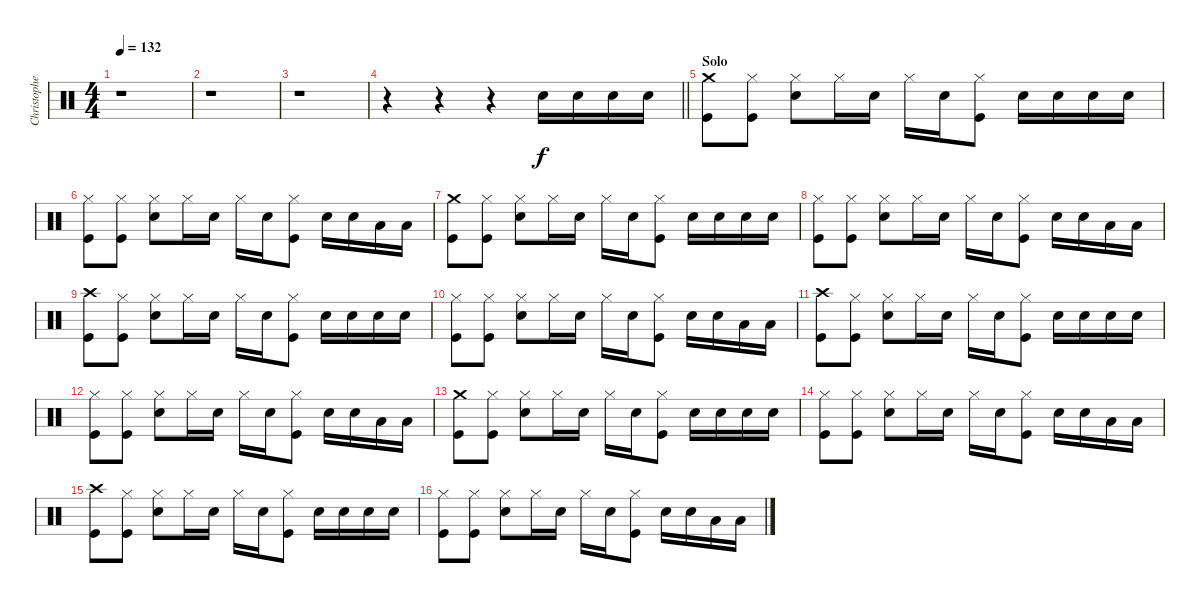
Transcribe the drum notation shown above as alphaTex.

\track ("Christopher - Drums" "Christophe") {instrument percussion}
\staff {score}
\articulation defaults
\ts (4 4)
\tempo 132
\clef neutral
\ks c
r.1{dy f} |
r.1 |
r.1 |
\barLineRight lightlight
r.4 r.4 r.4 "Snare (hit) 2".16 "Snare (hit) 2".16 "Snare (hit) 2".16 "Snare (hit) 2".16 |
\section ("" "Solo")
("Crash medium (hit)" "Kick (hit)").8 ("Hi-Hat (closed)" "Kick (hit)").8 ("Hi-Hat (closed)" "Snare (hit) 2").8 "Hi-Hat (closed)".16 "Snare (hit) 2".16 "Hi-Hat (closed)".16 "Snare (hit) 2".16 ("Hi-Hat (closed)" "Kick (hit)").8 "Snare (hit) 2".16 "Snare (hit) 2".16 "Snare (hit) 2".16 "Snare (hit) 2".16 |
("Hi-Hat (closed)" "Kick (hit)").8 ("Hi-Hat (closed)" "Kick (hit)").8 ("Hi-Hat (closed)" "Snare (hit) 2").8 "Hi-Hat (closed)".16 "Snare (hit) 2".16 "Hi-Hat (closed)".16 "Snare (hit) 2".16 ("Hi-Hat (closed)" "Kick (hit)").8 "Snare (hit) 2".16 "Snare (hit) 2".16 "Low Tom (hit)".16 "Low Tom (hit)".16 |
("Crash medium (hit)" "Kick (hit)").8 ("Hi-Hat (closed)" "Kick (hit)").8 ("Hi-Hat (closed)" "Snare (hit) 2").8 "Hi-Hat (closed)".16 "Snare (hit) 2".16 "Hi-Hat (closed)".16 "Snare (hit) 2".16 ("Hi-Hat (closed)" "Kick (hit)").8 "Snare (hit) 2".16 "Snare (hit) 2".16 "Snare (hit) 2".16 "Snare (hit) 2".16 |
("Hi-Hat (closed)" "Kick (hit)").8 ("Hi-Hat (closed)" "Kick (hit)").8 ("Hi-Hat (closed)" "Snare (hit) 2").8 "Hi-Hat (closed)".16 "Snare (hit) 2".16 "Hi-Hat (closed)".16 "Snare (hit) 2".16 ("Hi-Hat (closed)" "Kick (hit)").8 "Snare (hit) 2".16 "Snare (hit) 2".16 "Low Tom (hit)".16 "Low Tom (hit)".16 |
("Crash high (hit)" "Kick (hit)").8 ("Hi-Hat (closed)" "Kick (hit)").8 ("Hi-Hat (closed)" "Snare (hit) 2").8 "Hi-Hat (closed)".16 "Snare (hit) 2".16 "Hi-Hat (closed)".16 "Snare (hit) 2".16 ("Hi-Hat (closed)" "Kick (hit)").8 "Snare (hit) 2".16 "Snare (hit) 2".16 "Snare (hit) 2".16 "Snare (hit) 2".16 |
("Hi-Hat (closed)" "Kick (hit)").8 ("Hi-Hat (closed)" "Kick (hit)").8 ("Hi-Hat (closed)" "Snare (hit) 2").8 "Hi-Hat (closed)".16 "Snare (hit) 2".16 "Hi-Hat (closed)".16 "Snare (hit) 2".16 ("Hi-Hat (closed)" "Kick (hit)").8 "Snare (hit) 2".16 "Snare (hit) 2".16 "Low Tom (hit)".16 "Low Tom (hit)".16 |
("Crash high (hit)" "Kick (hit)").8 ("Hi-Hat (closed)" "Kick (hit)").8 ("Hi-Hat (closed)" "Snare (hit) 2").8 "Hi-Hat (closed)".16 "Snare (hit) 2".16 "Hi-Hat (closed)".16 "Snare (hit) 2".16 ("Hi-Hat (closed)" "Kick (hit)").8 "Snare (hit) 2".16 "Snare (hit) 2".16 "Snare (hit) 2".16 "Snare (hit) 2".16 |
("Hi-Hat (closed)" "Kick (hit)").8 ("Hi-Hat (closed)" "Kick (hit)").8 ("Hi-Hat (closed)" "Snare (hit) 2").8 "Hi-Hat (closed)".16 "Snare (hit) 2".16 "Hi-Hat (closed)".16 "Snare (hit) 2".16 ("Hi-Hat (closed)" "Kick (hit)").8 "Snare (hit) 2".16 "Snare (hit) 2".16 "Low Tom (hit)".16 "Low Tom (hit)".16 |
("Crash medium (hit)" "Kick (hit)").8 ("Hi-Hat (closed)" "Kick (hit)").8 ("Hi-Hat (closed)" "Snare (hit) 2").8 "Hi-Hat (closed)".16 "Snare (hit) 2".16 "Hi-Hat (closed)".16 "Snare (hit) 2".16 ("Hi-Hat (closed)" "Kick (hit)").8 "Snare (hit) 2".16 "Snare (hit) 2".16 "Snare (hit) 2".16 "Snare (hit) 2".16 |
("Hi-Hat (closed)" "Kick (hit)").8 ("Hi-Hat (closed)" "Kick (hit)").8 ("Hi-Hat (closed)" "Snare (hit) 2").8 "Hi-Hat (closed)".16 "Snare (hit) 2".16 "Hi-Hat (closed)".16 "Snare (hit) 2".16 ("Hi-Hat (closed)" "Kick (hit)").8 "Snare (hit) 2".16 "Snare (hit) 2".16 "Low Tom (hit)".16 "Low Tom (hit)".16 |
("Crash high (hit)" "Kick (hit)").8 ("Hi-Hat (closed)" "Kick (hit)").8 ("Hi-Hat (closed)" "Snare (hit) 2").8 "Hi-Hat (closed)".16 "Snare (hit) 2".16 "Hi-Hat (closed)".16 "Snare (hit) 2".16 ("Hi-Hat (closed)" "Kick (hit)").8 "Snare (hit) 2".16 "Snare (hit) 2".16 "Snare (hit) 2".16 "Snare (hit) 2".16 |
("Hi-Hat (closed)" "Kick (hit)").8 ("Hi-Hat (closed)" "Kick (hit)").8 ("Hi-Hat (closed)" "Snare (hit) 2").8 "Hi-Hat (closed)".16 "Snare (hit) 2".16 "Hi-Hat (closed)".16 "Snare (hit) 2".16 ("Hi-Hat (closed)" "Kick (hit)").8 "Snare (hit) 2".16 "Snare (hit) 2".16 "Low Tom (hit)".16 "Low Tom (hit)".16
